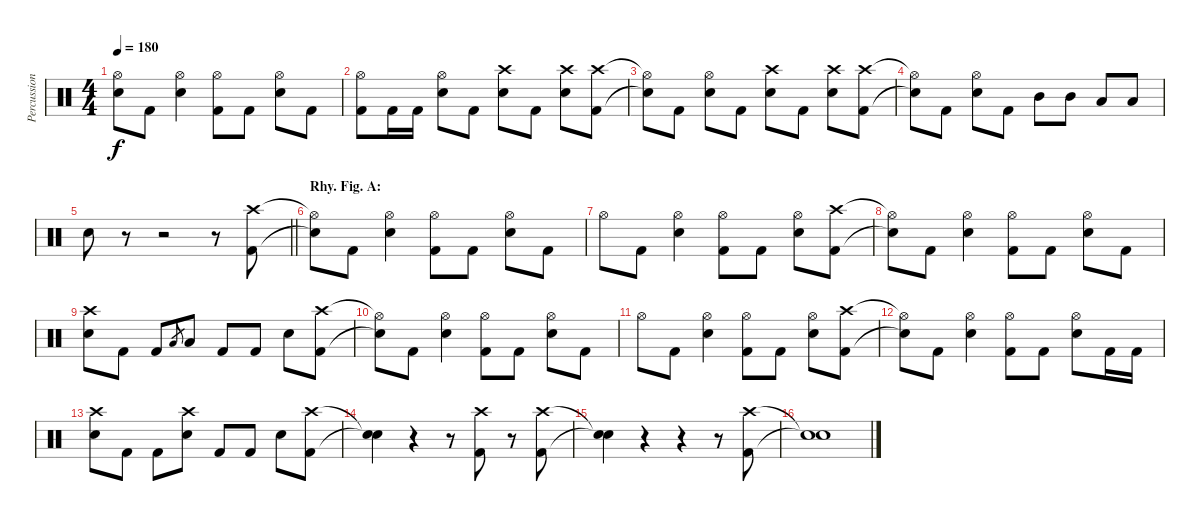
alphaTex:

\track ("Percussion" "Percussion") {instrument percussion}
\staff {score}
\articulation defaults
\ts (4 4)
\tempo 180
\clef neutral
\ks c
("Hi-Hat (open)"{t} "Snare (hit)"{t}).8{dy f} "Kick (hit) 2".8 ("Hi-Hat (open)" "Electric Snare (hit)").4 ("Hi-Hat (open)" "Kick (hit) 2").8 "Kick (hit) 2".8 ("Hi-Hat (open)" "Electric Snare (hit)").8 "Kick (hit) 2".8 |
("Hi-Hat (open)" "Kick (hit) 2").8 "Kick (hit) 2".16 "Kick (hit) 2".16 ("Hi-Hat (open)" "Electric Snare (hit)").8 "Kick (hit) 2".8 ("Crash high (hit)" "Electric Snare (hit)").8 "Kick (hit) 2".8 ("Crash high (hit)" "Electric Snare (hit)").8 ("Crash high (hit)" "Kick (hit) 2").8 |
("Hi-Hat (open)"{t} "Snare (hit)"{t}).8 "Kick (hit) 2".8 ("Hi-Hat (open)" "Electric Snare (hit)").8 "Kick (hit) 2".8 ("Crash high (hit)" "Electric Snare (hit)").8 "Kick (hit) 2".8 ("Crash high (hit)" "Electric Snare (hit)").8 ("Crash high (hit)" "Kick (hit) 2").8 |
("Hi-Hat (open)"{t} "Snare (hit)"{t}).8 "Kick (hit) 2".8 ("Hi-Hat (open)" "Electric Snare (hit)").8 "Kick (hit) 2".8 "Mid Tom (hit)".8 "Mid Tom (hit)".8 "Low Tom (hit)".8 "Low Tom (hit)".8 |
\barLineRight lightlight "Electric Snare (hit)".8
r.8 r.2 r.8 ("Crash high (hit)" "Kick (hit) 2").8 |
\section ("" "Rhy. Fig. A:")
("Hi-Hat (open)"{t} "Snare (hit)"{t}).8 "Kick (hit) 2".8 ("Hi-Hat (open)" "Electric Snare (hit)").4 ("Hi-Hat (open)" "Kick (hit) 2").8 "Kick (hit) 2".8 ("Hi-Hat (open)" "Electric Snare (hit)").8 "Kick (hit) 2".8 |
"Hi-Hat (open)".8 "Kick (hit) 2".8 ("Hi-Hat (open)" "Electric Snare (hit)").4 ("Hi-Hat (open)" "Kick (hit) 2").8 "Kick (hit) 2".8 ("Hi-Hat (open)" "Electric Snare (hit)").8 ("Crash high (hit)" "Kick (hit) 2").8 |
("Hi-Hat (open)"{t} "Snare (hit)"{t}).8 "Kick (hit) 2".8 ("Hi-Hat (open)" "Electric Snare (hit)").4 ("Hi-Hat (open)" "Kick (hit) 2").8 "Kick (hit) 2".8 ("Hi-Hat (open)" "Electric Snare (hit)").8 "Kick (hit) 2".8 |
("Crash high (hit)" "Electric Snare (hit)").8 "Kick (hit) 2".8 "Kick (hit) 2".8 "Low Tom (hit)".8{gr} "Low Tom (hit)".8 "Kick (hit) 2".8 "Kick (hit) 2".8 "Electric Snare (hit)".8 ("Crash high (hit)" "Kick (hit) 2").8 |
("Hi-Hat (open)"{t} "Snare (hit)"{t}).8 "Kick (hit) 2".8 ("Hi-Hat (open)" "Electric Snare (hit)").4 ("Hi-Hat (open)" "Kick (hit) 2").8 "Kick (hit) 2".8 ("Hi-Hat (open)" "Electric Snare (hit)").8 "Kick (hit) 2".8 |
"Hi-Hat (open)".8 "Kick (hit) 2".8 ("Hi-Hat (open)" "Electric Snare (hit)").4 ("Hi-Hat (open)" "Kick (hit) 2").8 "Kick (hit) 2".8 ("Hi-Hat (open)" "Electric Snare (hit)").8 ("Crash high (hit)" "Kick (hit) 2").8 |
("Hi-Hat (open)"{t} "Snare (hit)"{t}).8 "Kick (hit) 2".8 ("Hi-Hat (open)" "Electric Snare (hit)").4 ("Hi-Hat (open)" "Kick (hit) 2").8 "Kick (hit) 2".8 ("Hi-Hat (open)" "Electric Snare (hit)").8 "Kick (hit) 2".16 "Kick (hit) 2".16 |
("Crash high (hit)" "Electric Snare (hit)").8 "Kick (hit) 2".8 "Kick (hit) 2".8 ("Crash high (hit)" "Electric Snare (hit)").8 "Kick (hit) 2".8 "Kick (hit) 2".8 "Electric Snare (hit)".8 ("Crash high (hit)" "Kick (hit) 2").8 |
("Snare (hit)"{t} "Snare (hit)"{t}).4 r.4 r.8 ("Crash high (hit)" "Kick (hit) 2").8 r.8 ("Crash high (hit)" "Kick (hit) 2").8 |
("Snare (hit)"{t} "Snare (hit)"{t}).4 r.4 r.4 r.8 ("Crash high (hit)" "Kick (hit) 2").8 |
("Snare (hit)"{t} "Snare (hit)"{t}).1
